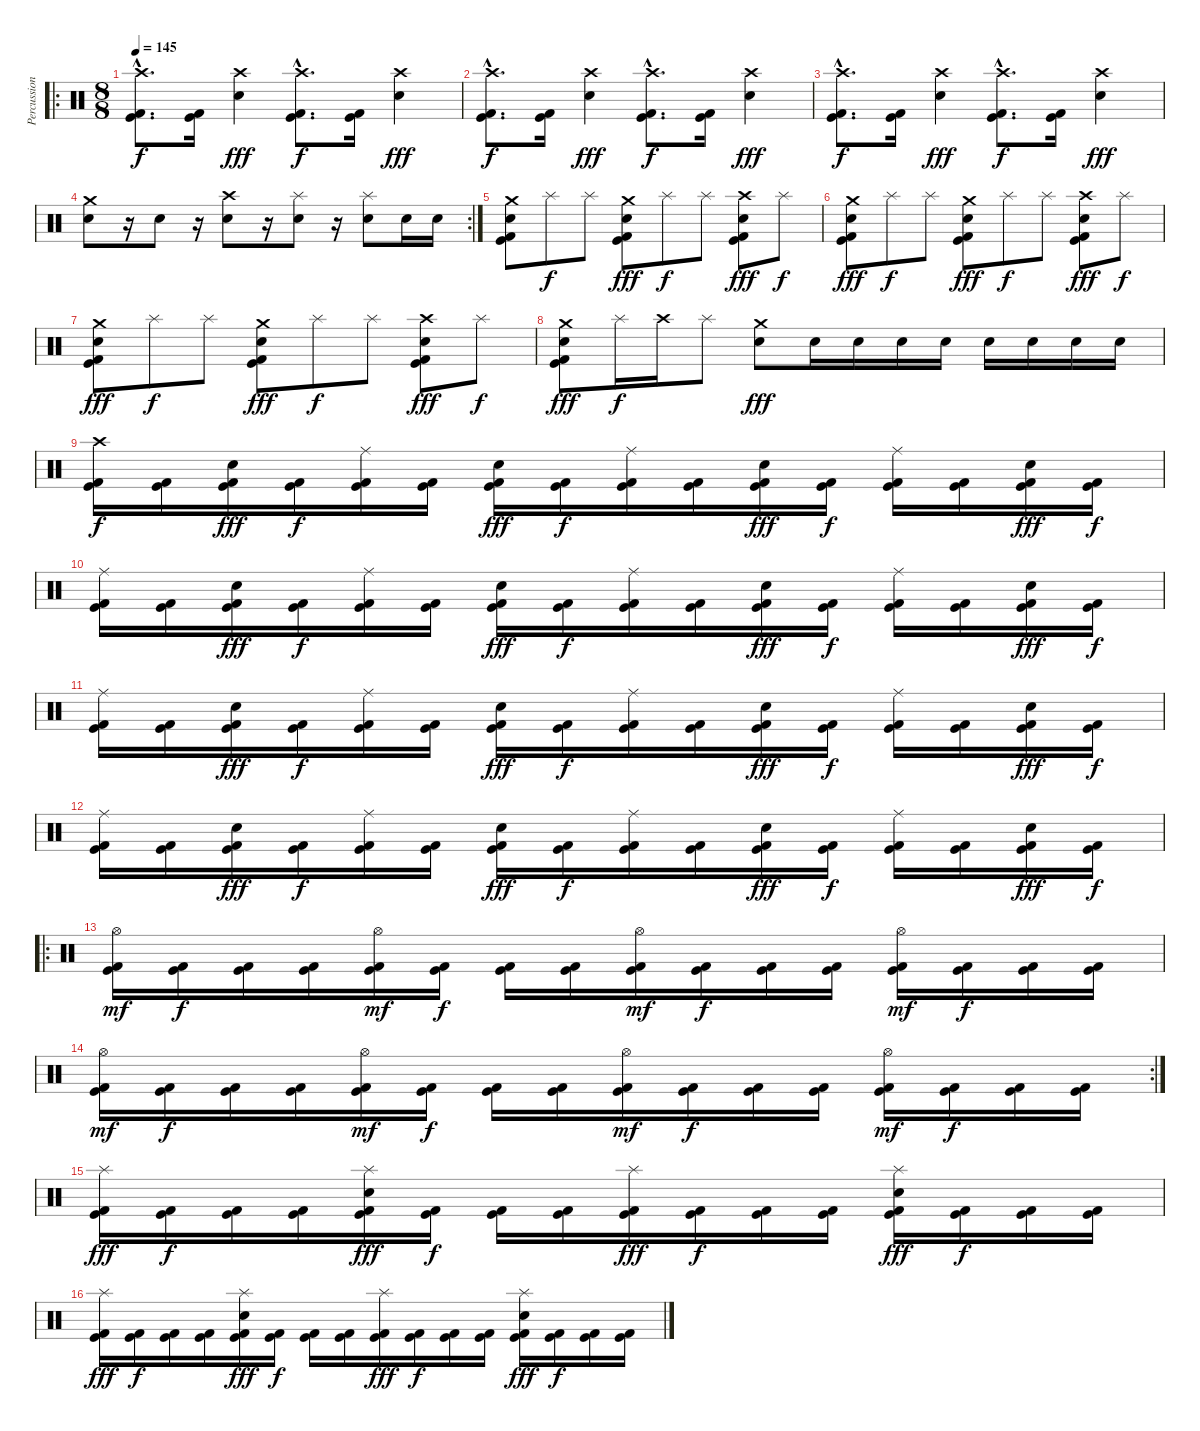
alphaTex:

\track ("Percussion" "Percussion") {instrument percussion}
\staff {score}
\articulation defaults
\ro
\ts (8 8)
\tempo 145
\clef neutral
\ks c
("Crash high (hit)"{hac} "Kick (hit)"{hac} "Kick (hit) 2"{hac}).8{d dy f} ("Kick (hit)" "Kick (hit) 2").16 ("Crash high (hit)" "Electric Snare (hit)").4{dy fff} ("Crash high (hit)"{hac} "Kick (hit)"{hac} "Kick (hit) 2"{hac}).8{d dy f} ("Kick (hit)" "Kick (hit) 2").16 ("Crash high (hit)" "Electric Snare (hit)").4{dy fff} |
("Crash high (hit)"{hac} "Kick (hit)"{hac} "Kick (hit) 2"{hac}).8{d dy f} ("Kick (hit)" "Kick (hit) 2").16 ("Crash high (hit)" "Electric Snare (hit)").4{dy fff} ("Crash high (hit)"{hac} "Kick (hit)"{hac} "Kick (hit) 2"{hac}).8{d dy f} ("Kick (hit)" "Kick (hit) 2").16 ("Crash high (hit)" "Electric Snare (hit)").4{dy fff} |
("Crash high (hit)"{hac} "Kick (hit)"{hac} "Kick (hit) 2"{hac}).8{d dy f} ("Kick (hit)" "Kick (hit) 2").16 ("Crash high (hit)" "Electric Snare (hit)").4{dy fff} ("Crash high (hit)"{hac} "Kick (hit)"{hac} "Kick (hit) 2"{hac}).8{d dy f} ("Kick (hit)" "Kick (hit) 2").16 ("Crash high (hit)" "Electric Snare (hit)").4{dy fff} |
\rc 2
("Crash medium (hit)" "Electric Snare (hit)").8 r.16 "Electric Snare (hit)".8 r.16 ("Crash high (hit)" "Electric Snare (hit)").8 r.16 ("Splash (hit)" "Electric Snare (hit)").8 r.16 ("Splash (hit)" "Electric Snare (hit)").8 "Electric Snare (hit)".16 "Electric Snare (hit)".16 |
("Crash medium (hit)" "Electric Snare (hit)" "Kick (hit)" "Kick (hit) 2").8 "Splash (hit)".8{dy f} "Splash (hit)".8 ("Crash medium (hit)" "Electric Snare (hit)" "Kick (hit)" "Kick (hit) 2").8{dy fff} "Splash (hit)".8{dy f} "Splash (hit)".8 ("Crash high (hit)" "Electric Snare (hit)" "Kick (hit)" "Kick (hit) 2").8{dy fff} "Splash (hit)".8{dy f} |
("Crash medium (hit)" "Electric Snare (hit)" "Kick (hit)" "Kick (hit) 2").8{dy fff} "Splash (hit)".8{dy f} "Splash (hit)".8 ("Crash medium (hit)" "Electric Snare (hit)" "Kick (hit)" "Kick (hit) 2").8{dy fff} "Splash (hit)".8{dy f} "Splash (hit)".8 ("Crash high (hit)" "Electric Snare (hit)" "Kick (hit)" "Kick (hit) 2").8{dy fff} "Splash (hit)".8{dy f} |
("Crash medium (hit)" "Electric Snare (hit)" "Kick (hit)" "Kick (hit) 2").8{dy fff} "Splash (hit)".8{dy f} "Splash (hit)".8 ("Crash medium (hit)" "Electric Snare (hit)" "Kick (hit)" "Kick (hit) 2").8{dy fff} "Splash (hit)".8{dy f} "Splash (hit)".8 ("Crash high (hit)" "Electric Snare (hit)" "Kick (hit)" "Kick (hit) 2").8{dy fff} "Splash (hit)".8{dy f} |
("Crash medium (hit)" "Electric Snare (hit)" "Kick (hit)" "Kick (hit) 2").8{dy fff} "Splash (hit)".16{dy f} "Crash high (hit)".16 "Splash (hit)".8 ("Crash medium (hit)" "Electric Snare (hit)").8{dy fff} "Electric Snare (hit)".16 "Electric Snare (hit)".16 "Electric Snare (hit)".16 "Electric Snare (hit)".16 "Electric Snare (hit)".16 "Electric Snare (hit)".16 "Electric Snare (hit)".16 "Electric Snare (hit)".16 |
("Crash high (hit)" "Kick (hit)" "Kick (hit) 2").16{dy f} ("Kick (hit)" "Kick (hit) 2").16 ("Electric Snare (hit)" "Kick (hit)" "Kick (hit) 2").16{dy fff} ("Kick (hit)" "Kick (hit) 2").16{dy f} ("Ride (middle)" "Kick (hit)" "Kick (hit) 2").16 ("Kick (hit)" "Kick (hit) 2").16 ("Electric Snare (hit)" "Kick (hit)" "Kick (hit) 2").16{dy fff} ("Kick (hit)" "Kick (hit) 2").16{dy f} ("Ride (middle)" "Kick (hit)" "Kick (hit) 2").16 ("Kick (hit)" "Kick (hit) 2").16 ("Electric Snare (hit)" "Kick (hit)" "Kick (hit) 2").16{dy fff} ("Kick (hit)" "Kick (hit) 2").16{dy f} ("Ride (middle)" "Kick (hit)" "Kick (hit) 2").16 ("Kick (hit)" "Kick (hit) 2").16 ("Electric Snare (hit)" "Kick (hit)" "Kick (hit) 2").16{dy fff} ("Kick (hit)" "Kick (hit) 2").16{dy f} |
("Ride (middle)" "Kick (hit)" "Kick (hit) 2").16 ("Kick (hit)" "Kick (hit) 2").16 ("Electric Snare (hit)" "Kick (hit)" "Kick (hit) 2").16{dy fff} ("Kick (hit)" "Kick (hit) 2").16{dy f} ("Ride (middle)" "Kick (hit)" "Kick (hit) 2").16 ("Kick (hit)" "Kick (hit) 2").16 ("Electric Snare (hit)" "Kick (hit)" "Kick (hit) 2").16{dy fff} ("Kick (hit)" "Kick (hit) 2").16{dy f} ("Ride (middle)" "Kick (hit)" "Kick (hit) 2").16 ("Kick (hit)" "Kick (hit) 2").16 ("Electric Snare (hit)" "Kick (hit)" "Kick (hit) 2").16{dy fff} ("Kick (hit)" "Kick (hit) 2").16{dy f} ("Ride (middle)" "Kick (hit)" "Kick (hit) 2").16 ("Kick (hit)" "Kick (hit) 2").16 ("Electric Snare (hit)" "Kick (hit)" "Kick (hit) 2").16{dy fff} ("Kick (hit)" "Kick (hit) 2").16{dy f} |
("Ride (middle)" "Kick (hit)" "Kick (hit) 2").16 ("Kick (hit)" "Kick (hit) 2").16 ("Electric Snare (hit)" "Kick (hit)" "Kick (hit) 2").16{dy fff} ("Kick (hit)" "Kick (hit) 2").16{dy f} ("Ride (middle)" "Kick (hit)" "Kick (hit) 2").16 ("Kick (hit)" "Kick (hit) 2").16 ("Electric Snare (hit)" "Kick (hit)" "Kick (hit) 2").16{dy fff} ("Kick (hit)" "Kick (hit) 2").16{dy f} ("Ride (middle)" "Kick (hit)" "Kick (hit) 2").16 ("Kick (hit)" "Kick (hit) 2").16 ("Electric Snare (hit)" "Kick (hit)" "Kick (hit) 2").16{dy fff} ("Kick (hit)" "Kick (hit) 2").16{dy f} ("Ride (middle)" "Kick (hit)" "Kick (hit) 2").16 ("Kick (hit)" "Kick (hit) 2").16 ("Electric Snare (hit)" "Kick (hit)" "Kick (hit) 2").16{dy fff} ("Kick (hit)" "Kick (hit) 2").16{dy f} |
("Ride (middle)" "Kick (hit)" "Kick (hit) 2").16 ("Kick (hit)" "Kick (hit) 2").16 ("Electric Snare (hit)" "Kick (hit)" "Kick (hit) 2").16{dy fff} ("Kick (hit)" "Kick (hit) 2").16{dy f} ("Ride (middle)" "Kick (hit)" "Kick (hit) 2").16 ("Kick (hit)" "Kick (hit) 2").16 ("Electric Snare (hit)" "Kick (hit)" "Kick (hit) 2").16{dy fff} ("Kick (hit)" "Kick (hit) 2").16{dy f} ("Ride (middle)" "Kick (hit)" "Kick (hit) 2").16 ("Kick (hit)" "Kick (hit) 2").16 ("Electric Snare (hit)" "Kick (hit)" "Kick (hit) 2").16{dy fff} ("Kick (hit)" "Kick (hit) 2").16{dy f} ("Ride (middle)" "Kick (hit)" "Kick (hit) 2").16 ("Kick (hit)" "Kick (hit) 2").16 ("Electric Snare (hit)" "Kick (hit)" "Kick (hit) 2").16{dy fff} ("Kick (hit)" "Kick (hit) 2").16{dy f} |
\ro
("Hi-Hat (open)" "Kick (hit)" "Kick (hit) 2").16{dy mf} ("Kick (hit)" "Kick (hit) 2").16{dy f} ("Kick (hit)" "Kick (hit) 2").16 ("Kick (hit)" "Kick (hit) 2").16 ("Hi-Hat (open)" "Kick (hit)" "Kick (hit) 2").16{dy mf} ("Kick (hit)" "Kick (hit) 2").16{dy f} ("Kick (hit)" "Kick (hit) 2").16 ("Kick (hit)" "Kick (hit) 2").16 ("Hi-Hat (open)" "Kick (hit)" "Kick (hit) 2").16{dy mf} ("Kick (hit)" "Kick (hit) 2").16{dy f} ("Kick (hit)" "Kick (hit) 2").16 ("Kick (hit)" "Kick (hit) 2").16 ("Hi-Hat (open)" "Kick (hit)" "Kick (hit) 2").16{dy mf} ("Kick (hit)" "Kick (hit) 2").16{dy f} ("Kick (hit)" "Kick (hit) 2").16 ("Kick (hit)" "Kick (hit) 2").16 |
\rc 2
("Hi-Hat (open)" "Kick (hit)" "Kick (hit) 2").16{dy mf} ("Kick (hit)" "Kick (hit) 2").16{dy f} ("Kick (hit)" "Kick (hit) 2").16 ("Kick (hit)" "Kick (hit) 2").16 ("Hi-Hat (open)" "Kick (hit)" "Kick (hit) 2").16{dy mf} ("Kick (hit)" "Kick (hit) 2").16{dy f} ("Kick (hit)" "Kick (hit) 2").16 ("Kick (hit)" "Kick (hit) 2").16 ("Hi-Hat (open)" "Kick (hit)" "Kick (hit) 2").16{dy mf} ("Kick (hit)" "Kick (hit) 2").16{dy f} ("Kick (hit)" "Kick (hit) 2").16 ("Kick (hit)" "Kick (hit) 2").16 ("Hi-Hat (open)" "Kick (hit)" "Kick (hit) 2").16{dy mf} ("Kick (hit)" "Kick (hit) 2").16{dy f} ("Kick (hit)" "Kick (hit) 2").16 ("Kick (hit)" "Kick (hit) 2").16 |
("Splash (hit)" "Kick (hit)" "Kick (hit) 2").16{dy fff} ("Kick (hit)" "Kick (hit) 2").16{dy f} ("Kick (hit)" "Kick (hit) 2").16 ("Kick (hit)" "Kick (hit) 2").16 ("Splash (hit)" "Electric Snare (hit)" "Kick (hit)" "Kick (hit) 2").16{dy fff} ("Kick (hit)" "Kick (hit) 2").16{dy f} ("Kick (hit)" "Kick (hit) 2").16 ("Kick (hit)" "Kick (hit) 2").16 ("Splash (hit)" "Kick (hit)" "Kick (hit) 2").16{dy fff} ("Kick (hit)" "Kick (hit) 2").16{dy f} ("Kick (hit)" "Kick (hit) 2").16 ("Kick (hit)" "Kick (hit) 2").16 ("Splash (hit)" "Electric Snare (hit)" "Kick (hit)" "Kick (hit) 2").16{dy fff} ("Kick (hit)" "Kick (hit) 2").16{dy f} ("Kick (hit)" "Kick (hit) 2").16 ("Kick (hit)" "Kick (hit) 2").16 |
("Splash (hit)" "Kick (hit)" "Kick (hit) 2").16{dy fff} ("Kick (hit)" "Kick (hit) 2").16{dy f} ("Kick (hit)" "Kick (hit) 2").16 ("Kick (hit)" "Kick (hit) 2").16 ("Splash (hit)" "Electric Snare (hit)" "Kick (hit)" "Kick (hit) 2").16{dy fff} ("Kick (hit)" "Kick (hit) 2").16{dy f} ("Kick (hit)" "Kick (hit) 2").16 ("Kick (hit)" "Kick (hit) 2").16 ("Splash (hit)" "Kick (hit)" "Kick (hit) 2").16{dy fff} ("Kick (hit)" "Kick (hit) 2").16{dy f} ("Kick (hit)" "Kick (hit) 2").16 ("Kick (hit)" "Kick (hit) 2").16 ("Splash (hit)" "Electric Snare (hit)" "Kick (hit)" "Kick (hit) 2").16{dy fff} ("Kick (hit)" "Kick (hit) 2").16{dy f} ("Kick (hit)" "Kick (hit) 2").16 ("Kick (hit)" "Kick (hit) 2").16
